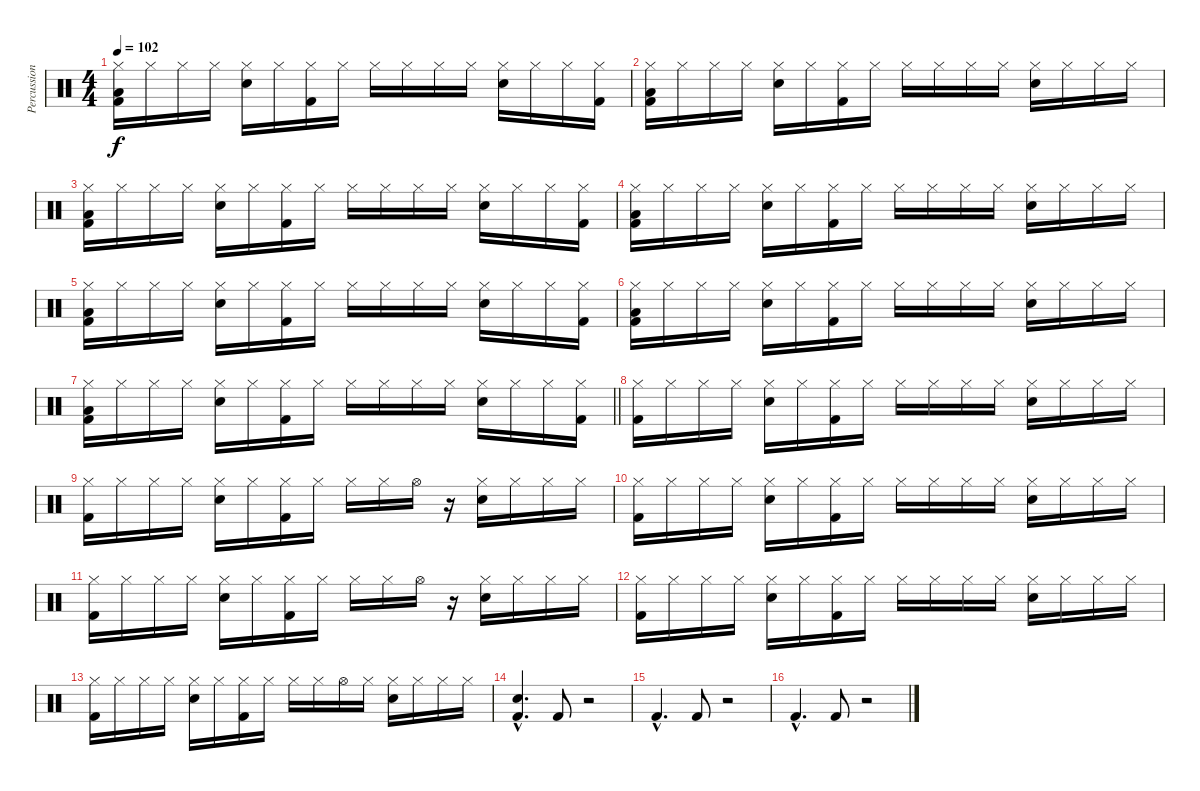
\track ("Percussions" "Percussion") {instrument percussion}
\staff {score}
\articulation defaults
\ts (4 4)
\tempo 102
\clef neutral
\ks c
("Low Floor Tom (hit)" "Hi-Hat (closed)" "Kick (hit) 2").16{dy f} "Hi-Hat (closed)".16 "Hi-Hat (closed)".16 "Hi-Hat (closed)".16 ("Snare (hit) 2" "Hi-Hat (closed)").16 "Hi-Hat (closed)".16 ("Hi-Hat (closed)" "Kick (hit) 2").16 "Hi-Hat (closed)".16 "Hi-Hat (closed)".16 "Hi-Hat (closed)".16 "Hi-Hat (closed)".16 "Hi-Hat (closed)".16 ("Snare (hit) 2" "Hi-Hat (closed)").16 "Hi-Hat (closed)".16 "Hi-Hat (closed)".16 ("Hi-Hat (closed)" "Kick (hit) 2").16 |
("Low Floor Tom (hit)" "Hi-Hat (closed)" "Kick (hit) 2").16 "Hi-Hat (closed)".16 "Hi-Hat (closed)".16 "Hi-Hat (closed)".16 ("Snare (hit) 2" "Hi-Hat (closed)").16 "Hi-Hat (closed)".16 ("Hi-Hat (closed)" "Kick (hit) 2").16 "Hi-Hat (closed)".16 "Hi-Hat (closed)".16 "Hi-Hat (closed)".16 "Hi-Hat (closed)".16 "Hi-Hat (closed)".16 ("Snare (hit) 2" "Hi-Hat (closed)").16 "Hi-Hat (closed)".16 "Hi-Hat (closed)".16 "Hi-Hat (closed)".16 |
("Low Floor Tom (hit)" "Hi-Hat (closed)" "Kick (hit) 2").16 "Hi-Hat (closed)".16 "Hi-Hat (closed)".16 "Hi-Hat (closed)".16 ("Snare (hit) 2" "Hi-Hat (closed)").16 "Hi-Hat (closed)".16 ("Hi-Hat (closed)" "Kick (hit) 2").16 "Hi-Hat (closed)".16 "Hi-Hat (closed)".16 "Hi-Hat (closed)".16 "Hi-Hat (closed)".16 "Hi-Hat (closed)".16 ("Snare (hit) 2" "Hi-Hat (closed)").16 "Hi-Hat (closed)".16 "Hi-Hat (closed)".16 ("Hi-Hat (closed)" "Kick (hit) 2").16 |
("Low Floor Tom (hit)" "Hi-Hat (closed)" "Kick (hit) 2").16 "Hi-Hat (closed)".16 "Hi-Hat (closed)".16 "Hi-Hat (closed)".16 ("Snare (hit) 2" "Hi-Hat (closed)").16 "Hi-Hat (closed)".16 ("Hi-Hat (closed)" "Kick (hit) 2").16 "Hi-Hat (closed)".16 "Hi-Hat (closed)".16 "Hi-Hat (closed)".16 "Hi-Hat (closed)".16 "Hi-Hat (closed)".16 ("Snare (hit) 2" "Hi-Hat (closed)").16 "Hi-Hat (closed)".16 "Hi-Hat (closed)".16 "Hi-Hat (closed)".16 |
("Low Floor Tom (hit)" "Hi-Hat (closed)" "Kick (hit) 2").16 "Hi-Hat (closed)".16 "Hi-Hat (closed)".16 "Hi-Hat (closed)".16 ("Snare (hit) 2" "Hi-Hat (closed)").16 "Hi-Hat (closed)".16 ("Hi-Hat (closed)" "Kick (hit) 2").16 "Hi-Hat (closed)".16 "Hi-Hat (closed)".16 "Hi-Hat (closed)".16 "Hi-Hat (closed)".16 "Hi-Hat (closed)".16 ("Snare (hit) 2" "Hi-Hat (closed)").16 "Hi-Hat (closed)".16 "Hi-Hat (closed)".16 ("Hi-Hat (closed)" "Kick (hit) 2").16 |
("Low Floor Tom (hit)" "Hi-Hat (closed)" "Kick (hit) 2").16 "Hi-Hat (closed)".16 "Hi-Hat (closed)".16 "Hi-Hat (closed)".16 ("Snare (hit) 2" "Hi-Hat (closed)").16 "Hi-Hat (closed)".16 ("Hi-Hat (closed)" "Kick (hit) 2").16 "Hi-Hat (closed)".16 "Hi-Hat (closed)".16 "Hi-Hat (closed)".16 "Hi-Hat (closed)".16 "Hi-Hat (closed)".16 ("Snare (hit) 2" "Hi-Hat (closed)").16 "Hi-Hat (closed)".16 "Hi-Hat (closed)".16 "Hi-Hat (closed)".16 |
\barLineRight lightlight
("Low Floor Tom (hit)" "Hi-Hat (closed)" "Kick (hit) 2").16 "Hi-Hat (closed)".16 "Hi-Hat (closed)".16 "Hi-Hat (closed)".16 ("Snare (hit) 2" "Hi-Hat (closed)").16 "Hi-Hat (closed)".16 ("Hi-Hat (closed)" "Kick (hit) 2").16 "Hi-Hat (closed)".16 "Hi-Hat (closed)".16 "Hi-Hat (closed)".16 "Hi-Hat (closed)".16 "Hi-Hat (closed)".16 ("Snare (hit) 2" "Hi-Hat (closed)").16 "Hi-Hat (closed)".16 "Hi-Hat (closed)".16 ("Hi-Hat (closed)" "Kick (hit) 2").16 |
("Hi-Hat (closed)" "Kick (hit) 2").16 "Hi-Hat (closed)".16 "Hi-Hat (closed)".16 "Hi-Hat (closed)".16 ("Snare (hit) 2" "Hi-Hat (closed)").16 "Hi-Hat (closed)".16 ("Hi-Hat (closed)" "Kick (hit) 2").16 "Hi-Hat (closed)".16 "Hi-Hat (closed)".16 "Hi-Hat (closed)".16 "Hi-Hat (closed)".16 "Hi-Hat (closed)".16 ("Snare (hit) 2" "Hi-Hat (closed)").16 "Hi-Hat (closed)".16 "Hi-Hat (closed)".16 "Hi-Hat (closed)".16 |
("Hi-Hat (closed)" "Kick (hit) 2").16 "Hi-Hat (closed)".16 "Hi-Hat (closed)".16 "Hi-Hat (closed)".16 ("Snare (hit) 2" "Hi-Hat (closed)").16 "Hi-Hat (closed)".16 ("Hi-Hat (closed)" "Kick (hit) 2").16 "Hi-Hat (closed)".16 "Hi-Hat (closed)".16 "Hi-Hat (closed)".16 "Hi-Hat (open)".16 r.16 ("Snare (hit) 2" "Hi-Hat (closed)").16 "Hi-Hat (closed)".16 "Hi-Hat (closed)".16 "Hi-Hat (closed)".16 |
("Hi-Hat (closed)" "Kick (hit) 2").16 "Hi-Hat (closed)".16 "Hi-Hat (closed)".16 "Hi-Hat (closed)".16 ("Snare (hit) 2" "Hi-Hat (closed)").16 "Hi-Hat (closed)".16 ("Hi-Hat (closed)" "Kick (hit) 2").16 "Hi-Hat (closed)".16 "Hi-Hat (closed)".16 "Hi-Hat (closed)".16 "Hi-Hat (closed)".16 "Hi-Hat (closed)".16 ("Snare (hit) 2" "Hi-Hat (closed)").16 "Hi-Hat (closed)".16 "Hi-Hat (closed)".16 "Hi-Hat (closed)".16 |
("Hi-Hat (closed)" "Kick (hit) 2").16 "Hi-Hat (closed)".16 "Hi-Hat (closed)".16 "Hi-Hat (closed)".16 ("Snare (hit) 2" "Hi-Hat (closed)").16 "Hi-Hat (closed)".16 ("Hi-Hat (closed)" "Kick (hit) 2").16 "Hi-Hat (closed)".16 "Hi-Hat (closed)".16 "Hi-Hat (closed)".16 "Hi-Hat (open)".16 r.16 ("Snare (hit) 2" "Hi-Hat (closed)").16 "Hi-Hat (closed)".16 "Hi-Hat (closed)".16 "Hi-Hat (closed)".16 |
("Hi-Hat (closed)" "Kick (hit) 2").16 "Hi-Hat (closed)".16 "Hi-Hat (closed)".16 "Hi-Hat (closed)".16 ("Snare (hit) 2" "Hi-Hat (closed)").16 "Hi-Hat (closed)".16 ("Hi-Hat (closed)" "Kick (hit) 2").16 "Hi-Hat (closed)".16 "Hi-Hat (closed)".16 "Hi-Hat (closed)".16 "Hi-Hat (closed)".16 "Hi-Hat (closed)".16 ("Snare (hit) 2" "Hi-Hat (closed)").16 "Hi-Hat (closed)".16 "Hi-Hat (closed)".16 "Hi-Hat (closed)".16 |
("Hi-Hat (closed)" "Kick (hit) 2").16 "Hi-Hat (closed)".16 "Hi-Hat (closed)".16 "Hi-Hat (closed)".16 ("Snare (hit) 2" "Hi-Hat (closed)").16 "Hi-Hat (closed)".16 ("Hi-Hat (closed)" "Kick (hit) 2").16 "Hi-Hat (closed)".16 "Hi-Hat (closed)".16 "Hi-Hat (closed)".16 "Hi-Hat (open)".16 "Hi-Hat (closed)".16 ("Snare (hit) 2" "Hi-Hat (closed)").16 "Hi-Hat (closed)".16 "Hi-Hat (closed)".16 "Hi-Hat (closed)".16 |
("Kick (hit) 2"{hac} "Snare (hit) 2"{hac}).4{d} "Kick (hit) 2".8 r.2 |
"Kick (hit) 2"{hac}.4{d} "Kick (hit) 2".8 r.2 |
"Kick (hit) 2"{hac}.4{d} "Kick (hit) 2".8 r.2
